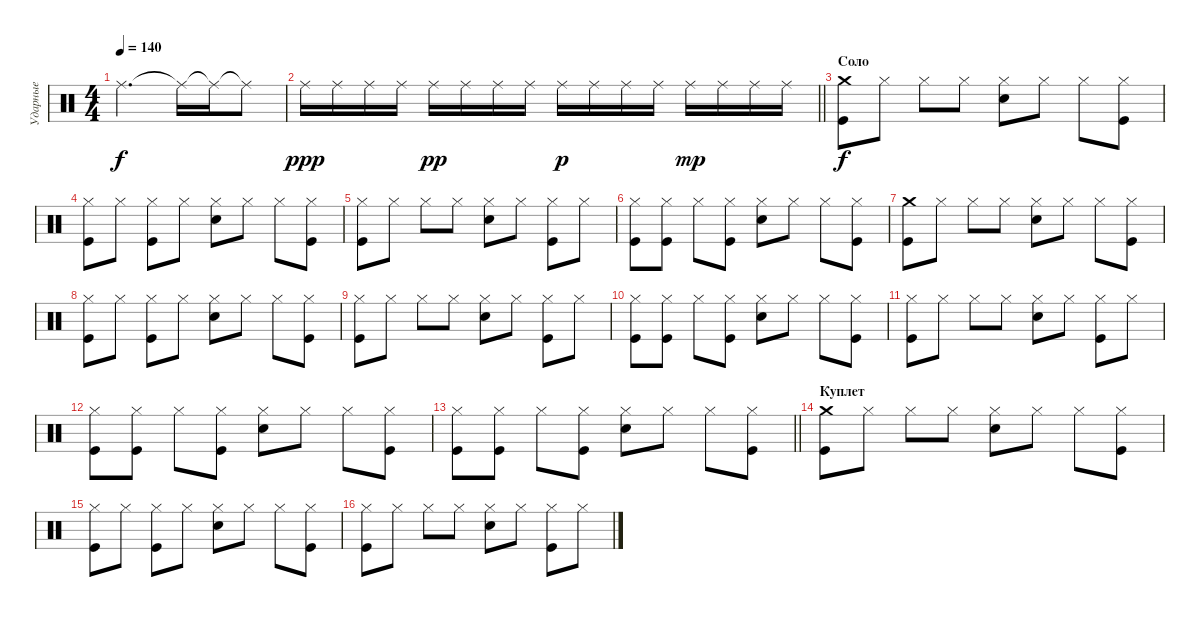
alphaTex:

\track ("Ударные" "Ударные") {instrument percussion}
\staff {score}
\articulation defaults
\ts (4 4)
\tempo 140
\clef neutral
\ks c "Ride (middle)".2{d dy f} "Ride (middle)"{t}.16 "Ride (middle)"{t}.16 "Ride (middle)"{t}.8
|
\barLineRight lightlight "Ride (middle)".16{dy ppp} "Ride (middle)".16 "Ride (middle)".16 "Ride (middle)".16 "Ride (middle)".16{dy pp} "Ride (middle)".16 "Ride (middle)".16 "Ride (middle)".16 "Ride (middle)".16{dy p} "Ride (middle)".16 "Ride (middle)".16 "Ride (middle)".16 "Ride (middle)".16{dy mp} "Ride (middle)".16 "Ride (middle)".16 "Ride (middle)".16
|
\section ("" "Соло")
("Crash medium (hit)" "Kick (hit)").8{dy f} "Hi-Hat (closed)".8 "Hi-Hat (closed)".8 "Hi-Hat (closed)".8 ("Hi-Hat (closed)" "Snare (hit) 2").8 "Hi-Hat (closed)".8 "Hi-Hat (closed)".8 ("Hi-Hat (closed)" "Kick (hit)").8 |
("Hi-Hat (closed)" "Kick (hit)").8 "Hi-Hat (closed)".8 ("Hi-Hat (closed)" "Kick (hit)").8 "Hi-Hat (closed)".8 ("Hi-Hat (closed)" "Snare (hit) 2").8 "Hi-Hat (closed)".8 "Hi-Hat (closed)".8 ("Hi-Hat (closed)" "Kick (hit)").8 |
("Hi-Hat (closed)" "Kick (hit)").8 "Hi-Hat (closed)".8 "Hi-Hat (closed)".8 "Hi-Hat (closed)".8 ("Hi-Hat (closed)" "Snare (hit) 2").8 "Hi-Hat (closed)".8 ("Hi-Hat (closed)" "Kick (hit)").8 "Hi-Hat (closed)".8 |
("Hi-Hat (closed)" "Kick (hit)").8 ("Hi-Hat (closed)" "Kick (hit)").8 "Hi-Hat (closed)".8 ("Hi-Hat (closed)" "Kick (hit)").8 ("Hi-Hat (closed)" "Snare (hit) 2").8 "Hi-Hat (closed)".8 "Hi-Hat (closed)".8 ("Hi-Hat (closed)" "Kick (hit)").8 |
("Crash medium (hit)" "Kick (hit)").8 "Hi-Hat (closed)".8 "Hi-Hat (closed)".8 "Hi-Hat (closed)".8 ("Hi-Hat (closed)" "Snare (hit) 2").8 "Hi-Hat (closed)".8 "Hi-Hat (closed)".8 ("Hi-Hat (closed)" "Kick (hit)").8 |
("Hi-Hat (closed)" "Kick (hit)").8 "Hi-Hat (closed)".8 ("Hi-Hat (closed)" "Kick (hit)").8 "Hi-Hat (closed)".8 ("Hi-Hat (closed)" "Snare (hit) 2").8 "Hi-Hat (closed)".8 "Hi-Hat (closed)".8 ("Hi-Hat (closed)" "Kick (hit)").8 |
("Hi-Hat (closed)" "Kick (hit)").8 "Hi-Hat (closed)".8 "Hi-Hat (closed)".8 "Hi-Hat (closed)".8 ("Hi-Hat (closed)" "Snare (hit) 2").8 "Hi-Hat (closed)".8 ("Hi-Hat (closed)" "Kick (hit)").8 "Hi-Hat (closed)".8 |
("Hi-Hat (closed)" "Kick (hit)").8 ("Hi-Hat (closed)" "Kick (hit)").8 "Hi-Hat (closed)".8 ("Hi-Hat (closed)" "Kick (hit)").8 ("Hi-Hat (closed)" "Snare (hit) 2").8 "Hi-Hat (closed)".8 "Hi-Hat (closed)".8 ("Hi-Hat (closed)" "Kick (hit)").8 |
("Hi-Hat (closed)" "Kick (hit)").8 "Hi-Hat (closed)".8 "Hi-Hat (closed)".8 "Hi-Hat (closed)".8 ("Hi-Hat (closed)" "Snare (hit) 2").8 "Hi-Hat (closed)".8 ("Hi-Hat (closed)" "Kick (hit)").8 "Hi-Hat (closed)".8 |
("Hi-Hat (closed)" "Kick (hit)").8 ("Hi-Hat (closed)" "Kick (hit)").8 "Hi-Hat (closed)".8 ("Hi-Hat (closed)" "Kick (hit)").8 ("Hi-Hat (closed)" "Snare (hit) 2").8 "Hi-Hat (closed)".8 "Hi-Hat (closed)".8 ("Hi-Hat (closed)" "Kick (hit)").8 |
\barLineRight lightlight
("Hi-Hat (closed)" "Kick (hit)").8 ("Hi-Hat (closed)" "Kick (hit)").8 "Hi-Hat (closed)".8 ("Hi-Hat (closed)" "Kick (hit)").8 ("Hi-Hat (closed)" "Snare (hit) 2").8 "Hi-Hat (closed)".8 "Hi-Hat (closed)".8 ("Hi-Hat (closed)" "Kick (hit)").8 |
\section ("" "Куплет")
("Crash medium (hit)" "Kick (hit)").8 "Hi-Hat (closed)".8 "Hi-Hat (closed)".8 "Hi-Hat (closed)".8 ("Hi-Hat (closed)" "Snare (hit) 2").8 "Hi-Hat (closed)".8 "Hi-Hat (closed)".8 ("Hi-Hat (closed)" "Kick (hit)").8 |
("Hi-Hat (closed)" "Kick (hit)").8 "Hi-Hat (closed)".8 ("Hi-Hat (closed)" "Kick (hit)").8 "Hi-Hat (closed)".8 ("Hi-Hat (closed)" "Snare (hit) 2").8 "Hi-Hat (closed)".8 "Hi-Hat (closed)".8 ("Hi-Hat (closed)" "Kick (hit)").8 |
("Hi-Hat (closed)" "Kick (hit)").8 "Hi-Hat (closed)".8 "Hi-Hat (closed)".8 "Hi-Hat (closed)".8 ("Hi-Hat (closed)" "Snare (hit) 2").8 "Hi-Hat (closed)".8 ("Hi-Hat (closed)" "Kick (hit)").8 "Hi-Hat (closed)".8
